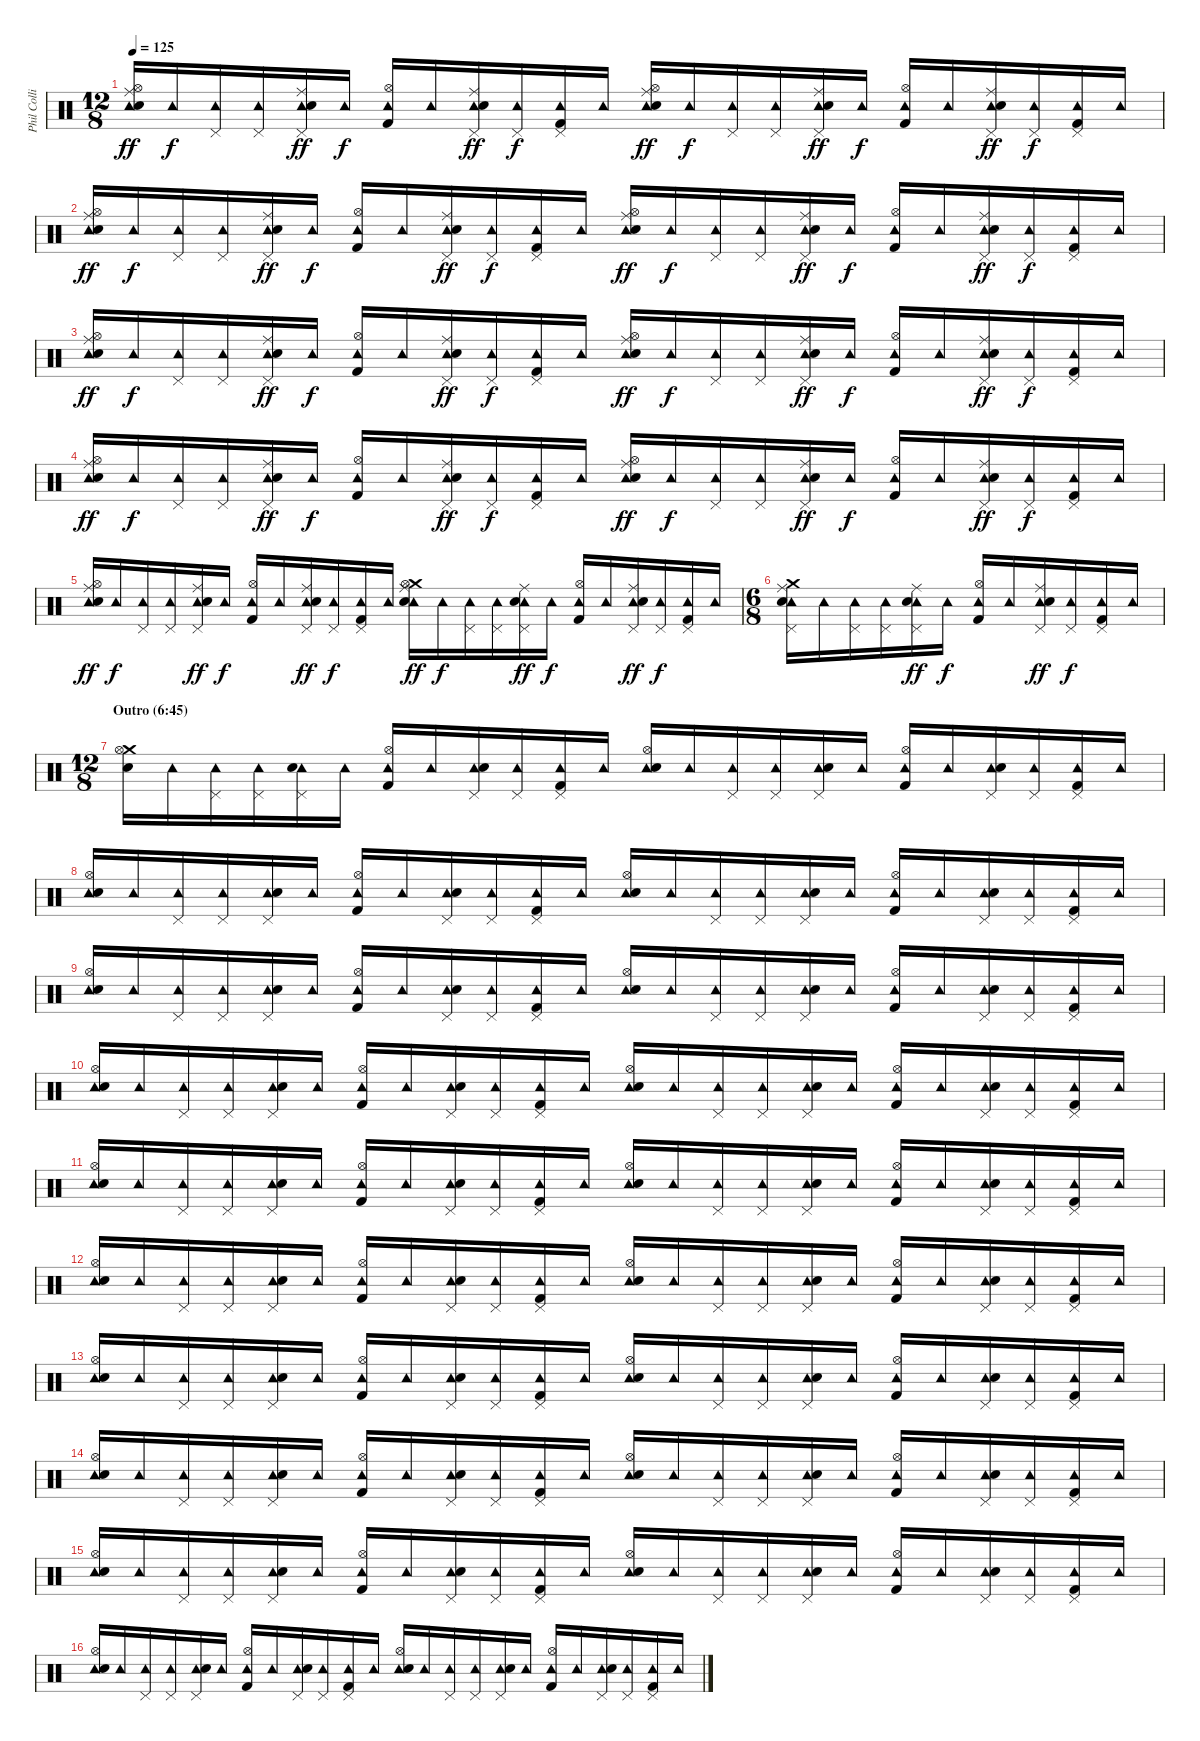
\track ("Phil Collins (drums)" "Phil Colli") {instrument percussion}
\staff {score}
\articulation defaults
\ts (12 8)
\tempo 125
\clef neutral
\ks c
("Ride (middle)" "Tambourine (hit)" "Hi-Hat (open)" "Electric Snare (hit)").16{dy ff} "Tambourine (hit)".16{dy f} ("Tambourine (hit)" "Pedal Hi-Hat (hit)").16 ("Tambourine (hit)" "Pedal Hi-Hat (hit)").16 ("Ride (middle)" "Tambourine (hit)" "Pedal Hi-Hat (hit)" "Electric Snare (hit)").16{dy ff} "Tambourine (hit)".16{dy f} ("Tambourine (hit)" "Hi-Hat (open)" "Kick (hit) 2").16 "Tambourine (hit)".16 ("Ride (middle)" "Tambourine (hit)" "Pedal Hi-Hat (hit)" "Electric Snare (hit)").16{dy ff} ("Tambourine (hit)" "Pedal Hi-Hat (hit)").16{dy f} ("Tambourine (hit)" "Pedal Hi-Hat (hit)" "Kick (hit) 2").16 "Tambourine (hit)".16 ("Ride (middle)" "Tambourine (hit)" "Hi-Hat (open)" "Electric Snare (hit)").16{dy ff} "Tambourine (hit)".16{dy f} ("Tambourine (hit)" "Pedal Hi-Hat (hit)").16 ("Tambourine (hit)" "Pedal Hi-Hat (hit)").16 ("Ride (middle)" "Tambourine (hit)" "Pedal Hi-Hat (hit)" "Electric Snare (hit)").16{dy ff} "Tambourine (hit)".16{dy f} ("Tambourine (hit)" "Hi-Hat (open)" "Kick (hit) 2").16 "Tambourine (hit)".16 ("Ride (middle)" "Tambourine (hit)" "Pedal Hi-Hat (hit)" "Electric Snare (hit)").16{dy ff} ("Tambourine (hit)" "Pedal Hi-Hat (hit)").16{dy f} ("Tambourine (hit)" "Pedal Hi-Hat (hit)" "Kick (hit) 2").16 "Tambourine (hit)".16 |
("Ride (middle)" "Tambourine (hit)" "Hi-Hat (open)" "Electric Snare (hit)").16{dy ff} "Tambourine (hit)".16{dy f} ("Tambourine (hit)" "Pedal Hi-Hat (hit)").16 ("Tambourine (hit)" "Pedal Hi-Hat (hit)").16 ("Ride (middle)" "Tambourine (hit)" "Pedal Hi-Hat (hit)" "Electric Snare (hit)").16{dy ff} "Tambourine (hit)".16{dy f} ("Tambourine (hit)" "Hi-Hat (open)" "Kick (hit) 2").16 "Tambourine (hit)".16 ("Ride (middle)" "Tambourine (hit)" "Pedal Hi-Hat (hit)" "Electric Snare (hit)").16{dy ff} ("Tambourine (hit)" "Pedal Hi-Hat (hit)").16{dy f} ("Tambourine (hit)" "Pedal Hi-Hat (hit)" "Kick (hit) 2").16 "Tambourine (hit)".16 ("Ride (middle)" "Tambourine (hit)" "Hi-Hat (open)" "Electric Snare (hit)").16{dy ff} "Tambourine (hit)".16{dy f} ("Tambourine (hit)" "Pedal Hi-Hat (hit)").16 ("Tambourine (hit)" "Pedal Hi-Hat (hit)").16 ("Ride (middle)" "Tambourine (hit)" "Pedal Hi-Hat (hit)" "Electric Snare (hit)").16{dy ff} "Tambourine (hit)".16{dy f} ("Tambourine (hit)" "Hi-Hat (open)" "Kick (hit) 2").16 "Tambourine (hit)".16 ("Ride (middle)" "Tambourine (hit)" "Pedal Hi-Hat (hit)" "Electric Snare (hit)").16{dy ff} ("Tambourine (hit)" "Pedal Hi-Hat (hit)").16{dy f} ("Tambourine (hit)" "Pedal Hi-Hat (hit)" "Kick (hit) 2").16 "Tambourine (hit)".16 |
("Ride (middle)" "Tambourine (hit)" "Hi-Hat (open)" "Electric Snare (hit)").16{dy ff} "Tambourine (hit)".16{dy f} ("Tambourine (hit)" "Pedal Hi-Hat (hit)").16 ("Tambourine (hit)" "Pedal Hi-Hat (hit)").16 ("Ride (middle)" "Tambourine (hit)" "Pedal Hi-Hat (hit)" "Electric Snare (hit)").16{dy ff} "Tambourine (hit)".16{dy f} ("Tambourine (hit)" "Hi-Hat (open)" "Kick (hit) 2").16 "Tambourine (hit)".16 ("Ride (middle)" "Tambourine (hit)" "Pedal Hi-Hat (hit)" "Electric Snare (hit)").16{dy ff} ("Tambourine (hit)" "Pedal Hi-Hat (hit)").16{dy f} ("Tambourine (hit)" "Pedal Hi-Hat (hit)" "Kick (hit) 2").16 "Tambourine (hit)".16 ("Ride (middle)" "Tambourine (hit)" "Hi-Hat (open)" "Electric Snare (hit)").16{dy ff} "Tambourine (hit)".16{dy f} ("Tambourine (hit)" "Pedal Hi-Hat (hit)").16 ("Tambourine (hit)" "Pedal Hi-Hat (hit)").16 ("Ride (middle)" "Tambourine (hit)" "Pedal Hi-Hat (hit)" "Electric Snare (hit)").16{dy ff} "Tambourine (hit)".16{dy f} ("Tambourine (hit)" "Hi-Hat (open)" "Kick (hit) 2").16 "Tambourine (hit)".16 ("Ride (middle)" "Tambourine (hit)" "Pedal Hi-Hat (hit)" "Electric Snare (hit)").16{dy ff} ("Tambourine (hit)" "Pedal Hi-Hat (hit)").16{dy f} ("Tambourine (hit)" "Pedal Hi-Hat (hit)" "Kick (hit) 2").16 "Tambourine (hit)".16 |
("Ride (middle)" "Tambourine (hit)" "Hi-Hat (open)" "Electric Snare (hit)").16{dy ff} "Tambourine (hit)".16{dy f} ("Tambourine (hit)" "Pedal Hi-Hat (hit)").16 ("Tambourine (hit)" "Pedal Hi-Hat (hit)").16 ("Ride (middle)" "Tambourine (hit)" "Pedal Hi-Hat (hit)" "Electric Snare (hit)").16{dy ff} "Tambourine (hit)".16{dy f} ("Tambourine (hit)" "Hi-Hat (open)" "Kick (hit) 2").16 "Tambourine (hit)".16 ("Ride (middle)" "Tambourine (hit)" "Pedal Hi-Hat (hit)" "Electric Snare (hit)").16{dy ff} ("Tambourine (hit)" "Pedal Hi-Hat (hit)").16{dy f} ("Tambourine (hit)" "Pedal Hi-Hat (hit)" "Kick (hit) 2").16 "Tambourine (hit)".16 ("Ride (middle)" "Tambourine (hit)" "Hi-Hat (open)" "Electric Snare (hit)").16{dy ff} "Tambourine (hit)".16{dy f} ("Tambourine (hit)" "Pedal Hi-Hat (hit)").16 ("Tambourine (hit)" "Pedal Hi-Hat (hit)").16 ("Ride (middle)" "Tambourine (hit)" "Pedal Hi-Hat (hit)" "Electric Snare (hit)").16{dy ff} "Tambourine (hit)".16{dy f} ("Tambourine (hit)" "Hi-Hat (open)" "Kick (hit) 2").16 "Tambourine (hit)".16 ("Ride (middle)" "Tambourine (hit)" "Pedal Hi-Hat (hit)" "Electric Snare (hit)").16{dy ff} ("Tambourine (hit)" "Pedal Hi-Hat (hit)").16{dy f} ("Tambourine (hit)" "Pedal Hi-Hat (hit)" "Kick (hit) 2").16 "Tambourine (hit)".16 |
("Ride (middle)" "Tambourine (hit)" "Hi-Hat (open)" "Electric Snare (hit)").16{dy ff} "Tambourine (hit)".16{dy f} ("Tambourine (hit)" "Pedal Hi-Hat (hit)").16 ("Tambourine (hit)" "Pedal Hi-Hat (hit)").16 ("Ride (middle)" "Tambourine (hit)" "Pedal Hi-Hat (hit)" "Electric Snare (hit)").16{dy ff} "Tambourine (hit)".16{dy f} ("Tambourine (hit)" "Hi-Hat (open)" "Kick (hit) 2").16 "Tambourine (hit)".16 ("Ride (middle)" "Tambourine (hit)" "Pedal Hi-Hat (hit)" "Electric Snare (hit)").16{dy ff} ("Tambourine (hit)" "Pedal Hi-Hat (hit)").16{dy f} ("Tambourine (hit)" "Pedal Hi-Hat (hit)" "Kick (hit) 2").16 "Tambourine (hit)".16 ("Crash medium (hit)" "Ride (middle)" "Tambourine (hit)" "Hi-Hat (open)" "Electric Snare (hit)").16{dy ff} "Tambourine (hit)".16{dy f} ("Tambourine (hit)" "Pedal Hi-Hat (hit)").16 ("Tambourine (hit)" "Pedal Hi-Hat (hit)").16 ("Ride (middle)" "Tambourine (hit)" "Pedal Hi-Hat (hit)" "Electric Snare (hit)").16{dy ff} "Tambourine (hit)".16{dy f} ("Tambourine (hit)" "Hi-Hat (open)" "Kick (hit) 2").16 "Tambourine (hit)".16 ("Ride (middle)" "Tambourine (hit)" "Pedal Hi-Hat (hit)" "Electric Snare (hit)").16{dy ff} ("Tambourine (hit)" "Pedal Hi-Hat (hit)").16{dy f} ("Tambourine (hit)" "Pedal Hi-Hat (hit)" "Kick (hit) 2").16 "Tambourine (hit)".16 |
\ts (6 8)
("Crash medium (hit)" "Ride (middle)" "Tambourine (hit)" "Pedal Hi-Hat (hit)" "Electric Snare (hit)").16 "Tambourine (hit)".16 ("Tambourine (hit)" "Pedal Hi-Hat (hit)").16 ("Tambourine (hit)" "Pedal Hi-Hat (hit)").16 ("Ride (middle)" "Tambourine (hit)" "Pedal Hi-Hat (hit)" "Electric Snare (hit)").16{dy ff} "Tambourine (hit)".16{dy f} ("Tambourine (hit)" "Hi-Hat (open)" "Kick (hit) 2").16 "Tambourine (hit)".16 ("Ride (middle)" "Tambourine (hit)" "Pedal Hi-Hat (hit)" "Electric Snare (hit)").16{dy ff} ("Tambourine (hit)" "Pedal Hi-Hat (hit)").16{dy f} ("Tambourine (hit)" "Pedal Hi-Hat (hit)" "Kick (hit) 2").16 "Tambourine (hit)".16 |
\ts (12 8)
\section ("" "Outro (6:45)")
("Crash medium (hit)" "Hi-Hat (open)" "Electric Snare (hit)").16 "Tambourine (hit)".16 ("Tambourine (hit)" "Pedal Hi-Hat (hit)").16 ("Tambourine (hit)" "Pedal Hi-Hat (hit)").16 ("Tambourine (hit)" "Pedal Hi-Hat (hit)" "Electric Snare (hit)").16 "Tambourine (hit)".16 ("Tambourine (hit)" "Hi-Hat (open)" "Kick (hit) 2").16 "Tambourine (hit)".16 ("Tambourine (hit)" "Pedal Hi-Hat (hit)" "Electric Snare (hit)").16 ("Tambourine (hit)" "Pedal Hi-Hat (hit)").16 ("Tambourine (hit)" "Pedal Hi-Hat (hit)" "Kick (hit) 2").16 "Tambourine (hit)".16 ("Tambourine (hit)" "Hi-Hat (open)" "Electric Snare (hit)").16 "Tambourine (hit)".16 ("Tambourine (hit)" "Pedal Hi-Hat (hit)").16 ("Tambourine (hit)" "Pedal Hi-Hat (hit)").16 ("Tambourine (hit)" "Pedal Hi-Hat (hit)" "Electric Snare (hit)").16 "Tambourine (hit)".16 ("Tambourine (hit)" "Hi-Hat (open)" "Kick (hit) 2").16 "Tambourine (hit)".16 ("Tambourine (hit)" "Pedal Hi-Hat (hit)" "Electric Snare (hit)").16 ("Tambourine (hit)" "Pedal Hi-Hat (hit)").16 ("Tambourine (hit)" "Pedal Hi-Hat (hit)" "Kick (hit) 2").16 "Tambourine (hit)".16 |
("Tambourine (hit)" "Hi-Hat (open)" "Electric Snare (hit)").16 "Tambourine (hit)".16 ("Tambourine (hit)" "Pedal Hi-Hat (hit)").16 ("Tambourine (hit)" "Pedal Hi-Hat (hit)").16 ("Tambourine (hit)" "Pedal Hi-Hat (hit)" "Electric Snare (hit)").16 "Tambourine (hit)".16 ("Tambourine (hit)" "Hi-Hat (open)" "Kick (hit) 2").16 "Tambourine (hit)".16 ("Tambourine (hit)" "Pedal Hi-Hat (hit)" "Electric Snare (hit)").16 ("Tambourine (hit)" "Pedal Hi-Hat (hit)").16 ("Tambourine (hit)" "Pedal Hi-Hat (hit)" "Kick (hit) 2").16 "Tambourine (hit)".16 ("Tambourine (hit)" "Hi-Hat (open)" "Electric Snare (hit)").16 "Tambourine (hit)".16 ("Tambourine (hit)" "Pedal Hi-Hat (hit)").16 ("Tambourine (hit)" "Pedal Hi-Hat (hit)").16 ("Tambourine (hit)" "Pedal Hi-Hat (hit)" "Electric Snare (hit)").16 "Tambourine (hit)".16 ("Tambourine (hit)" "Hi-Hat (open)" "Kick (hit) 2").16 "Tambourine (hit)".16 ("Tambourine (hit)" "Pedal Hi-Hat (hit)" "Electric Snare (hit)").16 ("Tambourine (hit)" "Pedal Hi-Hat (hit)").16 ("Tambourine (hit)" "Pedal Hi-Hat (hit)" "Kick (hit) 2").16 "Tambourine (hit)".16 |
("Tambourine (hit)" "Hi-Hat (open)" "Electric Snare (hit)").16 "Tambourine (hit)".16 ("Tambourine (hit)" "Pedal Hi-Hat (hit)").16 ("Tambourine (hit)" "Pedal Hi-Hat (hit)").16 ("Tambourine (hit)" "Pedal Hi-Hat (hit)" "Electric Snare (hit)").16 "Tambourine (hit)".16 ("Tambourine (hit)" "Hi-Hat (open)" "Kick (hit) 2").16 "Tambourine (hit)".16 ("Tambourine (hit)" "Pedal Hi-Hat (hit)" "Electric Snare (hit)").16 ("Tambourine (hit)" "Pedal Hi-Hat (hit)").16 ("Tambourine (hit)" "Pedal Hi-Hat (hit)" "Kick (hit) 2").16 "Tambourine (hit)".16 ("Tambourine (hit)" "Hi-Hat (open)" "Electric Snare (hit)").16 "Tambourine (hit)".16 ("Tambourine (hit)" "Pedal Hi-Hat (hit)").16 ("Tambourine (hit)" "Pedal Hi-Hat (hit)").16 ("Tambourine (hit)" "Pedal Hi-Hat (hit)" "Electric Snare (hit)").16 "Tambourine (hit)".16 ("Tambourine (hit)" "Hi-Hat (open)" "Kick (hit) 2").16 "Tambourine (hit)".16 ("Tambourine (hit)" "Pedal Hi-Hat (hit)" "Electric Snare (hit)").16 ("Tambourine (hit)" "Pedal Hi-Hat (hit)").16 ("Tambourine (hit)" "Pedal Hi-Hat (hit)" "Kick (hit) 2").16 "Tambourine (hit)".16 |
("Tambourine (hit)" "Hi-Hat (open)" "Electric Snare (hit)").16 "Tambourine (hit)".16 ("Tambourine (hit)" "Pedal Hi-Hat (hit)").16 ("Tambourine (hit)" "Pedal Hi-Hat (hit)").16 ("Tambourine (hit)" "Pedal Hi-Hat (hit)" "Electric Snare (hit)").16 "Tambourine (hit)".16 ("Tambourine (hit)" "Hi-Hat (open)" "Kick (hit) 2").16 "Tambourine (hit)".16 ("Tambourine (hit)" "Pedal Hi-Hat (hit)" "Electric Snare (hit)").16 ("Tambourine (hit)" "Pedal Hi-Hat (hit)").16 ("Tambourine (hit)" "Pedal Hi-Hat (hit)" "Kick (hit) 2").16 "Tambourine (hit)".16 ("Tambourine (hit)" "Hi-Hat (open)" "Electric Snare (hit)").16 "Tambourine (hit)".16 ("Tambourine (hit)" "Pedal Hi-Hat (hit)").16 ("Tambourine (hit)" "Pedal Hi-Hat (hit)").16 ("Tambourine (hit)" "Pedal Hi-Hat (hit)" "Electric Snare (hit)").16 "Tambourine (hit)".16 ("Tambourine (hit)" "Hi-Hat (open)" "Kick (hit) 2").16 "Tambourine (hit)".16 ("Tambourine (hit)" "Pedal Hi-Hat (hit)" "Electric Snare (hit)").16 ("Tambourine (hit)" "Pedal Hi-Hat (hit)").16 ("Tambourine (hit)" "Pedal Hi-Hat (hit)" "Kick (hit) 2").16 "Tambourine (hit)".16 |
("Tambourine (hit)" "Hi-Hat (open)" "Electric Snare (hit)").16 "Tambourine (hit)".16 ("Tambourine (hit)" "Pedal Hi-Hat (hit)").16 ("Tambourine (hit)" "Pedal Hi-Hat (hit)").16 ("Tambourine (hit)" "Pedal Hi-Hat (hit)" "Electric Snare (hit)").16 "Tambourine (hit)".16 ("Tambourine (hit)" "Hi-Hat (open)" "Kick (hit) 2").16 "Tambourine (hit)".16 ("Tambourine (hit)" "Pedal Hi-Hat (hit)" "Electric Snare (hit)").16 ("Tambourine (hit)" "Pedal Hi-Hat (hit)").16 ("Tambourine (hit)" "Pedal Hi-Hat (hit)" "Kick (hit) 2").16 "Tambourine (hit)".16 ("Tambourine (hit)" "Hi-Hat (open)" "Electric Snare (hit)").16 "Tambourine (hit)".16 ("Tambourine (hit)" "Pedal Hi-Hat (hit)").16 ("Tambourine (hit)" "Pedal Hi-Hat (hit)").16 ("Tambourine (hit)" "Pedal Hi-Hat (hit)" "Electric Snare (hit)").16 "Tambourine (hit)".16 ("Tambourine (hit)" "Hi-Hat (open)" "Kick (hit) 2").16 "Tambourine (hit)".16 ("Tambourine (hit)" "Pedal Hi-Hat (hit)" "Electric Snare (hit)").16 ("Tambourine (hit)" "Pedal Hi-Hat (hit)").16 ("Tambourine (hit)" "Pedal Hi-Hat (hit)" "Kick (hit) 2").16 "Tambourine (hit)".16 |
("Tambourine (hit)" "Hi-Hat (open)" "Electric Snare (hit)").16 "Tambourine (hit)".16 ("Tambourine (hit)" "Pedal Hi-Hat (hit)").16 ("Tambourine (hit)" "Pedal Hi-Hat (hit)").16 ("Tambourine (hit)" "Pedal Hi-Hat (hit)" "Electric Snare (hit)").16 "Tambourine (hit)".16 ("Tambourine (hit)" "Hi-Hat (open)" "Kick (hit) 2").16 "Tambourine (hit)".16 ("Tambourine (hit)" "Pedal Hi-Hat (hit)" "Electric Snare (hit)").16 ("Tambourine (hit)" "Pedal Hi-Hat (hit)").16 ("Tambourine (hit)" "Pedal Hi-Hat (hit)" "Kick (hit) 2").16 "Tambourine (hit)".16 ("Tambourine (hit)" "Hi-Hat (open)" "Electric Snare (hit)").16 "Tambourine (hit)".16 ("Tambourine (hit)" "Pedal Hi-Hat (hit)").16 ("Tambourine (hit)" "Pedal Hi-Hat (hit)").16 ("Tambourine (hit)" "Pedal Hi-Hat (hit)" "Electric Snare (hit)").16 "Tambourine (hit)".16 ("Tambourine (hit)" "Hi-Hat (open)" "Kick (hit) 2").16 "Tambourine (hit)".16 ("Tambourine (hit)" "Pedal Hi-Hat (hit)" "Electric Snare (hit)").16 ("Tambourine (hit)" "Pedal Hi-Hat (hit)").16 ("Tambourine (hit)" "Pedal Hi-Hat (hit)" "Kick (hit) 2").16 "Tambourine (hit)".16 |
("Tambourine (hit)" "Hi-Hat (open)" "Electric Snare (hit)").16 "Tambourine (hit)".16 ("Tambourine (hit)" "Pedal Hi-Hat (hit)").16 ("Tambourine (hit)" "Pedal Hi-Hat (hit)").16 ("Tambourine (hit)" "Pedal Hi-Hat (hit)" "Electric Snare (hit)").16 "Tambourine (hit)".16 ("Tambourine (hit)" "Hi-Hat (open)" "Kick (hit) 2").16 "Tambourine (hit)".16 ("Tambourine (hit)" "Pedal Hi-Hat (hit)" "Electric Snare (hit)").16 ("Tambourine (hit)" "Pedal Hi-Hat (hit)").16 ("Tambourine (hit)" "Pedal Hi-Hat (hit)" "Kick (hit) 2").16 "Tambourine (hit)".16 ("Tambourine (hit)" "Hi-Hat (open)" "Electric Snare (hit)").16 "Tambourine (hit)".16 ("Tambourine (hit)" "Pedal Hi-Hat (hit)").16 ("Tambourine (hit)" "Pedal Hi-Hat (hit)").16 ("Tambourine (hit)" "Pedal Hi-Hat (hit)" "Electric Snare (hit)").16 "Tambourine (hit)".16 ("Tambourine (hit)" "Hi-Hat (open)" "Kick (hit) 2").16 "Tambourine (hit)".16 ("Tambourine (hit)" "Pedal Hi-Hat (hit)" "Electric Snare (hit)").16 ("Tambourine (hit)" "Pedal Hi-Hat (hit)").16 ("Tambourine (hit)" "Pedal Hi-Hat (hit)" "Kick (hit) 2").16 "Tambourine (hit)".16 |
("Tambourine (hit)" "Hi-Hat (open)" "Electric Snare (hit)").16 "Tambourine (hit)".16 ("Tambourine (hit)" "Pedal Hi-Hat (hit)").16 ("Tambourine (hit)" "Pedal Hi-Hat (hit)").16 ("Tambourine (hit)" "Pedal Hi-Hat (hit)" "Electric Snare (hit)").16 "Tambourine (hit)".16 ("Tambourine (hit)" "Hi-Hat (open)" "Kick (hit) 2").16 "Tambourine (hit)".16 ("Tambourine (hit)" "Pedal Hi-Hat (hit)" "Electric Snare (hit)").16 ("Tambourine (hit)" "Pedal Hi-Hat (hit)").16 ("Tambourine (hit)" "Pedal Hi-Hat (hit)" "Kick (hit) 2").16 "Tambourine (hit)".16 ("Tambourine (hit)" "Hi-Hat (open)" "Electric Snare (hit)").16 "Tambourine (hit)".16 ("Tambourine (hit)" "Pedal Hi-Hat (hit)").16 ("Tambourine (hit)" "Pedal Hi-Hat (hit)").16 ("Tambourine (hit)" "Pedal Hi-Hat (hit)" "Electric Snare (hit)").16 "Tambourine (hit)".16 ("Tambourine (hit)" "Hi-Hat (open)" "Kick (hit) 2").16 "Tambourine (hit)".16 ("Tambourine (hit)" "Pedal Hi-Hat (hit)" "Electric Snare (hit)").16 ("Tambourine (hit)" "Pedal Hi-Hat (hit)").16 ("Tambourine (hit)" "Pedal Hi-Hat (hit)" "Kick (hit) 2").16 "Tambourine (hit)".16 |
("Tambourine (hit)" "Hi-Hat (open)" "Electric Snare (hit)").16{volume 6} "Tambourine (hit)".16 ("Tambourine (hit)" "Pedal Hi-Hat (hit)").16 ("Tambourine (hit)" "Pedal Hi-Hat (hit)").16 ("Tambourine (hit)" "Pedal Hi-Hat (hit)" "Electric Snare (hit)").16 "Tambourine (hit)".16 ("Tambourine (hit)" "Hi-Hat (open)" "Kick (hit) 2").16 "Tambourine (hit)".16 ("Tambourine (hit)" "Pedal Hi-Hat (hit)" "Electric Snare (hit)").16 ("Tambourine (hit)" "Pedal Hi-Hat (hit)").16 ("Tambourine (hit)" "Pedal Hi-Hat (hit)" "Kick (hit) 2").16 "Tambourine (hit)".16 ("Tambourine (hit)" "Hi-Hat (open)" "Electric Snare (hit)").16 "Tambourine (hit)".16 ("Tambourine (hit)" "Pedal Hi-Hat (hit)").16 ("Tambourine (hit)" "Pedal Hi-Hat (hit)").16 ("Tambourine (hit)" "Pedal Hi-Hat (hit)" "Electric Snare (hit)").16 "Tambourine (hit)".16 ("Tambourine (hit)" "Hi-Hat (open)" "Kick (hit) 2").16 "Tambourine (hit)".16 ("Tambourine (hit)" "Pedal Hi-Hat (hit)" "Electric Snare (hit)").16 ("Tambourine (hit)" "Pedal Hi-Hat (hit)").16 ("Tambourine (hit)" "Pedal Hi-Hat (hit)" "Kick (hit) 2").16 "Tambourine (hit)".16 |
("Tambourine (hit)" "Hi-Hat (open)" "Electric Snare (hit)").16{volume 4} "Tambourine (hit)".16 ("Tambourine (hit)" "Pedal Hi-Hat (hit)").16 ("Tambourine (hit)" "Pedal Hi-Hat (hit)").16 ("Tambourine (hit)" "Pedal Hi-Hat (hit)" "Electric Snare (hit)").16 "Tambourine (hit)".16 ("Tambourine (hit)" "Hi-Hat (open)" "Kick (hit) 2").16 "Tambourine (hit)".16 ("Tambourine (hit)" "Pedal Hi-Hat (hit)" "Electric Snare (hit)").16 ("Tambourine (hit)" "Pedal Hi-Hat (hit)").16 ("Tambourine (hit)" "Pedal Hi-Hat (hit)" "Kick (hit) 2").16 "Tambourine (hit)".16 ("Tambourine (hit)" "Hi-Hat (open)" "Electric Snare (hit)").16 "Tambourine (hit)".16 ("Tambourine (hit)" "Pedal Hi-Hat (hit)").16 ("Tambourine (hit)" "Pedal Hi-Hat (hit)").16 ("Tambourine (hit)" "Pedal Hi-Hat (hit)" "Electric Snare (hit)").16 "Tambourine (hit)".16 ("Tambourine (hit)" "Hi-Hat (open)" "Kick (hit) 2").16 "Tambourine (hit)".16 ("Tambourine (hit)" "Pedal Hi-Hat (hit)" "Electric Snare (hit)").16 ("Tambourine (hit)" "Pedal Hi-Hat (hit)").16 ("Tambourine (hit)" "Pedal Hi-Hat (hit)" "Kick (hit) 2").16 "Tambourine (hit)".16
